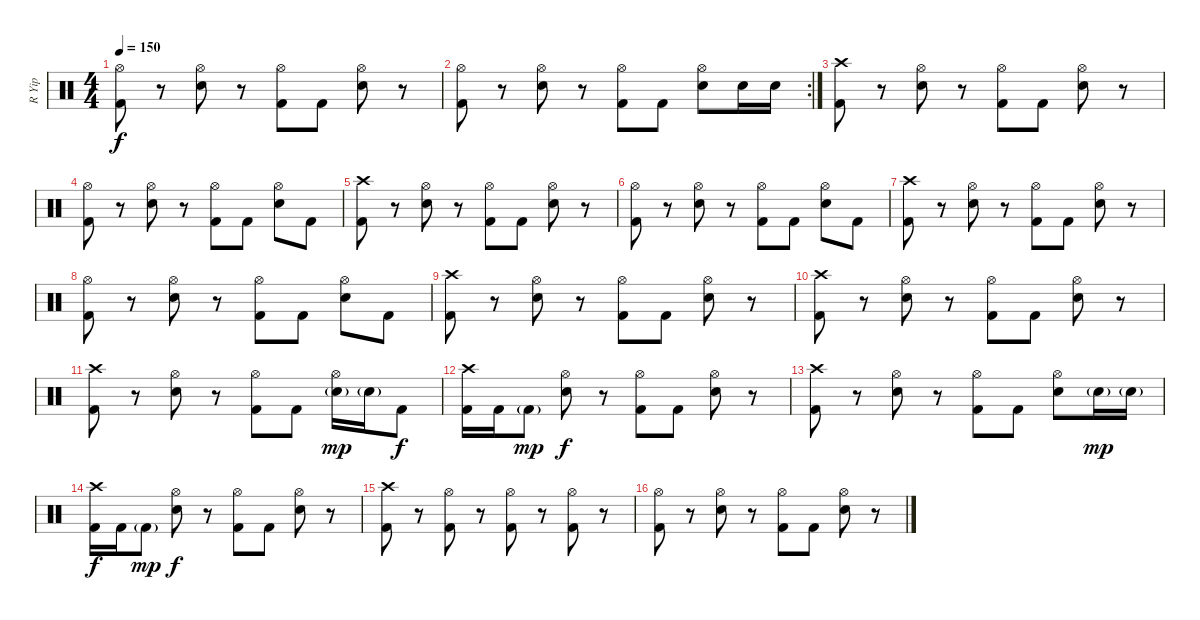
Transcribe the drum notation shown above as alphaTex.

\track ("R Yip" "R Yip") {instrument percussion}
\staff {score}
\articulation defaults
\ts (4 4)
\tempo 150
\clef neutral
\ks c
("Hi-Hat (open)" "Kick (hit) 2").8{dy f} r.8 ("Hi-Hat (open)" "Electric Snare (hit)").8 r.8 ("Hi-Hat (open)" "Kick (hit) 2").8 "Kick (hit) 2".8 ("Hi-Hat (open)" "Electric Snare (hit)").8 r.8 |
\rc 2
("Hi-Hat (open)" "Kick (hit) 2").8 r.8 ("Hi-Hat (open)" "Electric Snare (hit)").8 r.8 ("Hi-Hat (open)" "Kick (hit) 2").8 "Kick (hit) 2".8 ("Hi-Hat (open)" "Electric Snare (hit)").8 "Electric Snare (hit)".16 "Electric Snare (hit)".16 |
("Crash high (hit)" "Kick (hit) 2").8 r.8 ("Hi-Hat (open)" "Electric Snare (hit)").8 r.8 ("Hi-Hat (open)" "Kick (hit) 2").8 "Kick (hit) 2".8 ("Hi-Hat (open)" "Electric Snare (hit)").8 r.8 |
("Hi-Hat (open)" "Kick (hit) 2").8 r.8 ("Hi-Hat (open)" "Electric Snare (hit)").8 r.8 ("Hi-Hat (open)" "Kick (hit) 2").8 "Kick (hit) 2".8 ("Hi-Hat (open)" "Electric Snare (hit)").8 "Kick (hit) 2".8 |
("Crash high (hit)" "Kick (hit) 2").8 r.8 ("Hi-Hat (open)" "Electric Snare (hit)").8 r.8 ("Hi-Hat (open)" "Kick (hit) 2").8 "Kick (hit) 2".8 ("Hi-Hat (open)" "Electric Snare (hit)").8 r.8 |
("Hi-Hat (open)" "Kick (hit) 2").8 r.8 ("Hi-Hat (open)" "Electric Snare (hit)").8 r.8 ("Hi-Hat (open)" "Kick (hit) 2").8 "Kick (hit) 2".8 ("Hi-Hat (open)" "Electric Snare (hit)").8 "Kick (hit) 2".8 |
("Crash high (hit)" "Kick (hit) 2").8 r.8 ("Hi-Hat (open)" "Electric Snare (hit)").8 r.8 ("Hi-Hat (open)" "Kick (hit) 2").8 "Kick (hit) 2".8 ("Hi-Hat (open)" "Electric Snare (hit)").8 r.8 |
("Hi-Hat (open)" "Kick (hit) 2").8 r.8 ("Hi-Hat (open)" "Electric Snare (hit)").8 r.8 ("Hi-Hat (open)" "Kick (hit) 2").8 "Kick (hit) 2".8 ("Hi-Hat (open)" "Electric Snare (hit)").8 "Kick (hit) 2".8 |
("Crash high (hit)" "Kick (hit) 2").8 r.8 ("Hi-Hat (open)" "Electric Snare (hit)").8 r.8 ("Hi-Hat (open)" "Kick (hit) 2").8 "Kick (hit) 2".8 ("Hi-Hat (open)" "Electric Snare (hit)").8 r.8 |
("Crash high (hit)" "Kick (hit) 2").8 r.8 ("Hi-Hat (open)" "Electric Snare (hit)").8 r.8 ("Hi-Hat (open)" "Kick (hit) 2").8 "Kick (hit) 2".8 ("Hi-Hat (open)" "Electric Snare (hit)").8 r.8 |
("Crash high (hit)" "Kick (hit) 2").8 r.8 ("Hi-Hat (open)" "Electric Snare (hit)").8 r.8 ("Hi-Hat (open)" "Kick (hit) 2").8 "Kick (hit) 2".8 ("Hi-Hat (open)" "Electric Snare (hit)"{g}).16{dy mp} "Electric Snare (hit)"{g}.16 "Kick (hit) 2".8{dy f} |
("Crash high (hit)" "Kick (hit) 2").16 "Kick (hit) 2".16 "Kick (hit) 2"{g}.8{dy mp} ("Hi-Hat (open)" "Electric Snare (hit)").8{dy f} r.8 ("Hi-Hat (open)" "Kick (hit) 2").8 "Kick (hit) 2".8 ("Hi-Hat (open)" "Electric Snare (hit)").8 r.8 |
("Crash high (hit)" "Kick (hit) 2").8 r.8 ("Hi-Hat (open)" "Electric Snare (hit)").8 r.8 ("Hi-Hat (open)" "Kick (hit) 2").8 "Kick (hit) 2".8 ("Hi-Hat (open)" "Electric Snare (hit)").8 "Electric Snare (hit)"{g}.16{dy mp} "Electric Snare (hit)"{g}.16 |
("Crash high (hit)" "Kick (hit) 2").16{dy f} "Kick (hit) 2".16 "Kick (hit) 2"{g}.8{dy mp} ("Hi-Hat (open)" "Electric Snare (hit)").8{dy f} r.8 ("Hi-Hat (open)" "Kick (hit) 2").8 "Kick (hit) 2".8 ("Hi-Hat (open)" "Electric Snare (hit)").8 r.8 |
("Crash high (hit)" "Kick (hit) 2").8 r.8 ("Hi-Hat (open)" "Kick (hit) 2").8 r.8 ("Hi-Hat (open)" "Kick (hit) 2").8 r.8 ("Hi-Hat (open)" "Kick (hit) 2").8 r.8 |
("Hi-Hat (open)" "Kick (hit) 2").8 r.8 ("Hi-Hat (open)" "Electric Snare (hit)").8 r.8 ("Hi-Hat (open)" "Kick (hit) 2").8 "Kick (hit) 2".8 ("Hi-Hat (open)" "Electric Snare (hit)").8 r.8
